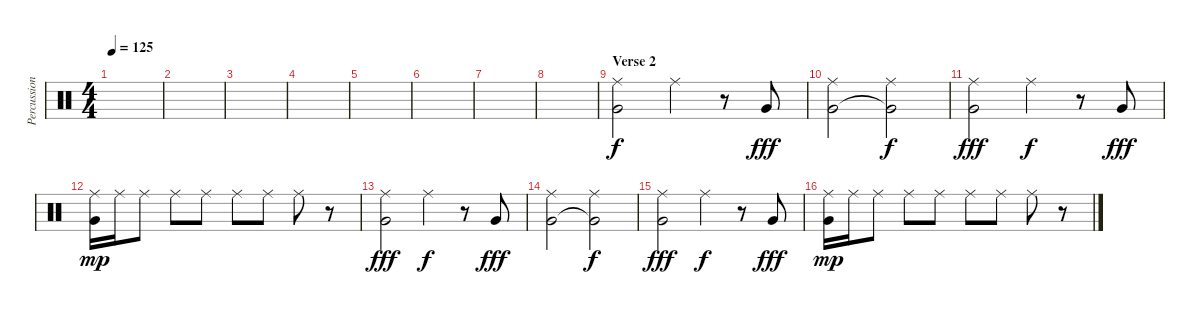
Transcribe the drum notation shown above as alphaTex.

\track ("Percussion" "Percussion") {instrument percussion}
\staff {score}
\articulation defaults
\ts (4 4)
\tempo 125
\clef neutral
\ks c
|
|
|
|
|
|
|
|
\section ("" "Verse 2")
("Very Low Tom (hit)" "Ride (middle)").2 "Ride (middle)".4{dy f} r.8 "Very Low Tom (hit)".8{dy fff} |
("Very Low Tom (hit)" "Ride (middle)").2 ("Very Low Tom (hit)"{t} "Ride (middle)").2{dy f} |
("Very Low Tom (hit)" "Ride (middle)").2{dy fff} "Ride (middle)".4{dy f} r.8 "Very Low Tom (hit)".8{dy fff} |
("Very Low Tom (hit)" "Ride (middle)").16{dy mp} "Ride (middle)".16 "Ride (middle)".8 "Ride (middle)".8 "Ride (middle)".8 "Ride (middle)".8 "Ride (middle)".8 "Ride (middle)".8 r.8 |
("Very Low Tom (hit)" "Ride (middle)").2{dy fff} "Ride (middle)".4{dy f} r.8 "Very Low Tom (hit)".8{dy fff} |
("Very Low Tom (hit)" "Ride (middle)").2 ("Very Low Tom (hit)"{t} "Ride (middle)").2{dy f} |
("Very Low Tom (hit)" "Ride (middle)").2{dy fff} "Ride (middle)".4{dy f} r.8 "Very Low Tom (hit)".8{dy fff} |
("Very Low Tom (hit)" "Ride (middle)").16{dy mp} "Ride (middle)".16 "Ride (middle)".8 "Ride (middle)".8 "Ride (middle)".8 "Ride (middle)".8 "Ride (middle)".8 "Ride (middle)".8 r.8
